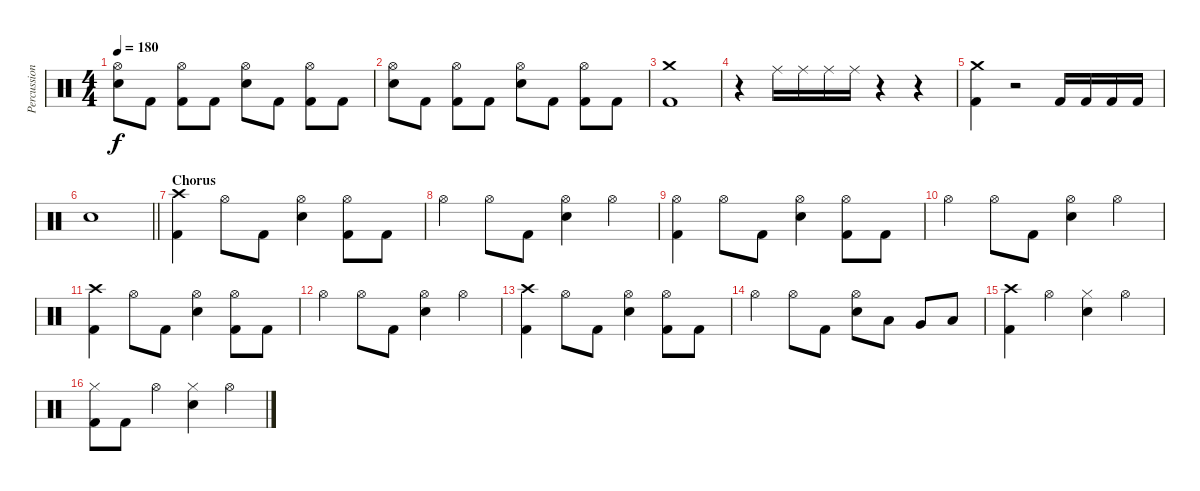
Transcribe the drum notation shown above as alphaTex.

\track ("Percussion" "Percussion") {instrument percussion}
\staff {score}
\articulation defaults
\ts (4 4)
\tempo 180
\clef neutral
\ks c
("Hi-Hat (open)" "Electric Snare (hit)").8{dy f} "Kick (hit) 2".8 ("Hi-Hat (open)" "Kick (hit) 2").8 "Kick (hit) 2".8 ("Hi-Hat (open)" "Electric Snare (hit)").8 "Kick (hit) 2".8 ("Hi-Hat (open)" "Kick (hit) 2").8 "Kick (hit) 2".8 |
("Hi-Hat (open)" "Electric Snare (hit)").8 "Kick (hit) 2".8 ("Hi-Hat (open)" "Kick (hit) 2").8 "Kick (hit) 2".8 ("Hi-Hat (open)" "Electric Snare (hit)").8 "Kick (hit) 2".8 ("Hi-Hat (open)" "Kick (hit) 2").8 "Kick (hit) 2".8 |
("Crash medium (hit)" "Kick (hit) 2").1 |
r.4 "Ride (middle)".16 "Ride (middle)".16 "Ride (middle)".16 "Ride (middle)".16 r.4 r.4 |
("Crash medium (hit)" "Kick (hit) 2").4 r.2 "Kick (hit) 2".16 "Kick (hit) 2".16 "Kick (hit) 2".16 "Kick (hit) 2".16 |
\barLineRight lightlight "Electric Snare (hit)".1
|
\section ("" "Chorus")
("Crash high (hit)" "Kick (hit) 2").4 "Hi-Hat (open)".8 "Kick (hit) 2".8 ("Hi-Hat (open)" "Electric Snare (hit)").4 ("Hi-Hat (open)" "Kick (hit) 2").8 "Kick (hit) 2".8 |
"Hi-Hat (open)".4 "Hi-Hat (open)".8 "Kick (hit) 2".8 ("Hi-Hat (open)" "Electric Snare (hit)").4 "Hi-Hat (open)".4 |
("Hi-Hat (open)" "Kick (hit) 2").4 "Hi-Hat (open)".8 "Kick (hit) 2".8 ("Hi-Hat (open)" "Electric Snare (hit)").4 ("Hi-Hat (open)" "Kick (hit) 2").8 "Kick (hit) 2".8 |
"Hi-Hat (open)".4 "Hi-Hat (open)".8 "Kick (hit) 2".8 ("Hi-Hat (open)" "Electric Snare (hit)").4 "Hi-Hat (open)".4 |
("Crash high (hit)" "Kick (hit) 2").4 "Hi-Hat (open)".8 "Kick (hit) 2".8 ("Hi-Hat (open)" "Electric Snare (hit)").4 ("Hi-Hat (open)" "Kick (hit) 2").8 "Kick (hit) 2".8 |
"Hi-Hat (open)".4 "Hi-Hat (open)".8 "Kick (hit) 2".8 ("Hi-Hat (open)" "Electric Snare (hit)").4 "Hi-Hat (open)".4 |
("Crash high (hit)" "Kick (hit) 2").4 "Hi-Hat (open)".8 "Kick (hit) 2".8 ("Hi-Hat (open)" "Electric Snare (hit)").4 ("Hi-Hat (open)" "Kick (hit) 2").8 "Kick (hit) 2".8 |
"Hi-Hat (open)".4 "Hi-Hat (open)".8 "Kick (hit) 2".8 ("Hi-Hat (open)" "Electric Snare (hit)").8 "Low Tom (hit)".8 "Very Low Tom (hit)".8 "Low Floor Tom (hit)".8 |
("Crash high (hit)" "Kick (hit) 2").4 "Hi-Hat (open)".4 ("Hi-Hat (closed)" "Electric Snare (hit)").4 "Hi-Hat (open)".4 |
("Hi-Hat (closed)" "Kick (hit) 2").8 "Kick (hit) 2".8 "Hi-Hat (open)".4 ("Hi-Hat (closed)" "Electric Snare (hit)").4 "Hi-Hat (open)".4
